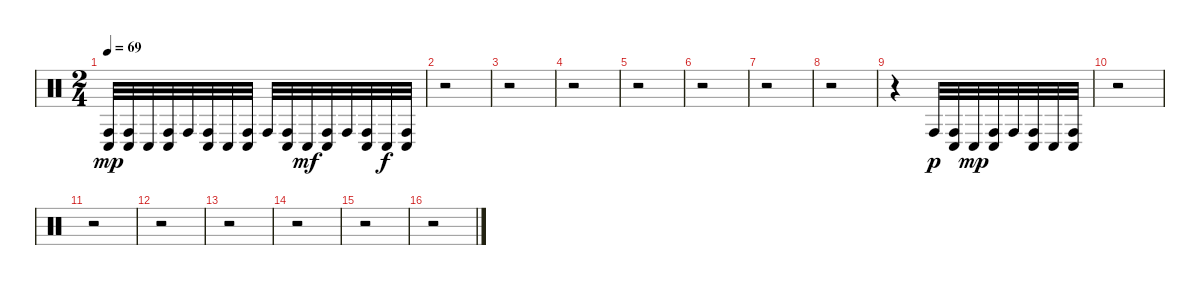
\track "" {instrument percussion}
\staff {score}
\articulation defaults
\ts (2 4)
\tempo 69
\clef neutral
\ks c
("Conga low (hit)" "Conga high (hit)").32{dy mp} ("Conga low (hit)" "Conga high (hit)").32 "Conga low (hit)".32 ("Conga high (hit)" "Conga low (hit)").32 "Conga high (hit)".32 ("Conga low (hit)" "Conga high (hit)").32 "Conga low (hit)".32 ("Conga high (hit)" "Conga low (hit)").32 "Conga high (hit)".32 ("Conga low (hit)" "Conga high (hit)").32 "Conga low (hit)".32{dy mf} ("Conga high (hit)" "Conga low (hit)").32 "Conga high (hit)".32 ("Conga low (hit)" "Conga high (hit)").32 "Conga low (hit)".32{dy f} ("Conga high (hit)" "Conga low (hit)").32 |
r.2 |
r.2 |
r.2 |
r.2 |
r.2 |
r.2 |
r.2 |
r.4 "Conga high (hit)".32{dy p} ("Conga low (hit)" "Conga high (hit)").32 "Conga low (hit)".32{dy mp} ("Conga high (hit)" "Conga low (hit)").32 "Conga high (hit)".32 ("Conga low (hit)" "Conga high (hit)").32 "Conga low (hit)".32 ("Conga high (hit)" "Conga low (hit)").32 |
r.2 |
r.2 |
r.2 |
r.2 |
r.2 |
r.2 |
r.2
